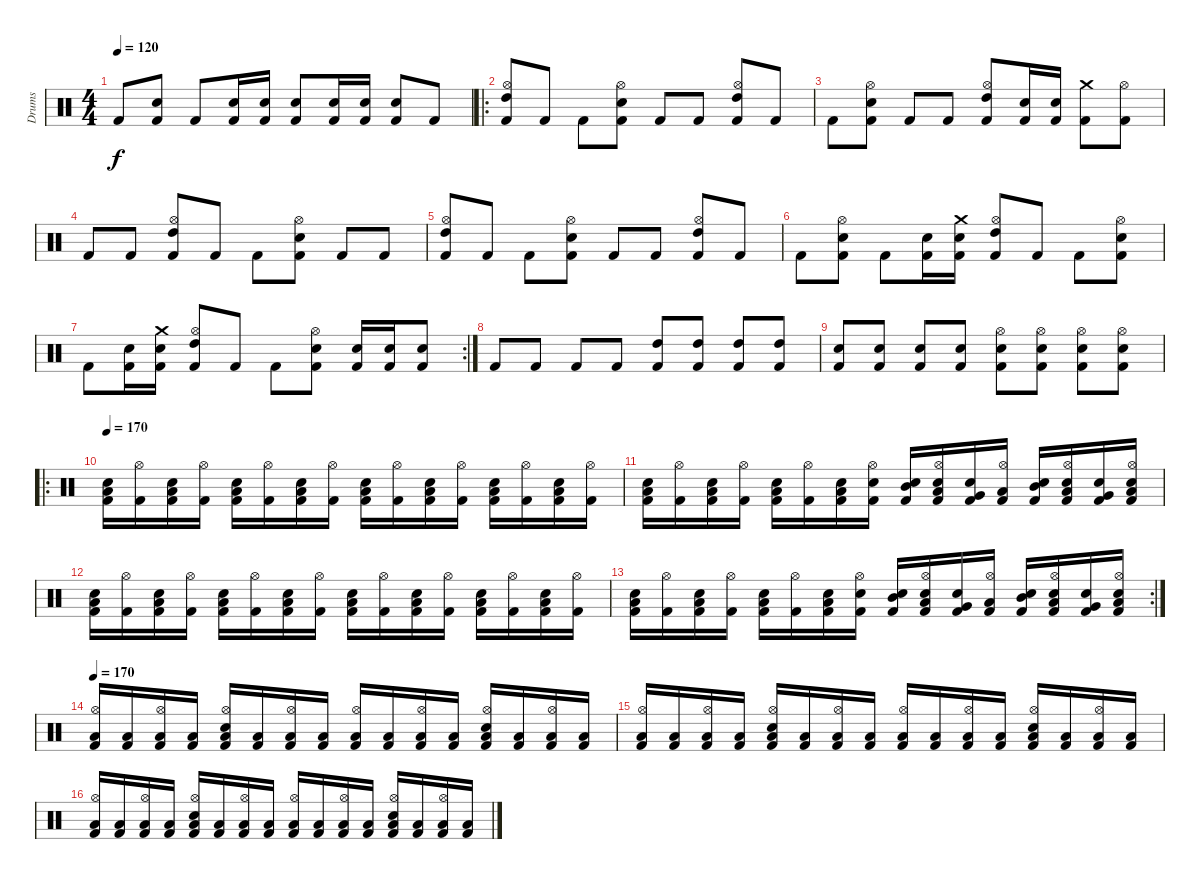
\track ("Drums" "Drums") {instrument percussion}
\staff {score}
\articulation defaults
\ts (4 4)
\tempo 120
\clef neutral
\ks c "Kick (hit) 2".8{dy f}
("Snare (hit) 2" "Kick (hit) 2").8 "Kick (hit) 2".8 ("Snare (hit) 2" "Kick (hit) 2").16 ("Snare (hit) 2" "Kick (hit) 2").16 ("Snare (hit) 2" "Kick (hit) 2").8 ("Snare (hit) 2" "Kick (hit) 2").16 ("Snare (hit) 2" "Kick (hit) 2").16 ("Snare (hit) 2" "Kick (hit) 2").8 "Kick (hit) 2".8 |
\ro
("Hi-Hat (open)" "High Tom (hit)" "Kick (hit) 2").8 "Kick (hit) 2".8 "Kick (hit) 2".8 ("Hi-Hat (open)" "Snare (hit) 2" "Kick (hit) 2").8 "Kick (hit) 2".8 "Kick (hit) 2".8 ("Hi-Hat (open)" "High Tom (hit)" "Kick (hit) 2").8 "Kick (hit) 2".8 |
"Kick (hit) 2".8 ("Hi-Hat (open)" "Snare (hit) 2" "Kick (hit) 2").8 "Kick (hit) 2".8 "Kick (hit) 2".8 ("Hi-Hat (open)" "High Tom (hit)" "Kick (hit) 2").8 ("Snare (hit) 2" "Kick (hit) 2").16 ("Snare (hit) 2" "Kick (hit) 2").16 ("Crash medium (hit)" "Kick (hit) 2").8 ("Hi-Hat (open)" "Kick (hit) 2").8 |
"Kick (hit) 2".8 "Kick (hit) 2".8 ("Hi-Hat (open)" "High Tom (hit)" "Kick (hit) 2").8 "Kick (hit) 2".8 "Kick (hit) 2".8 ("Hi-Hat (open)" "Snare (hit) 2" "Kick (hit) 2").8 "Kick (hit) 2".8 "Kick (hit) 2".8 |
("Hi-Hat (open)" "High Tom (hit)" "Kick (hit) 2").8 "Kick (hit) 2".8 "Kick (hit) 2".8 ("Hi-Hat (open)" "Snare (hit) 2" "Kick (hit) 2").8 "Kick (hit) 2".8 "Kick (hit) 2".8 ("Hi-Hat (open)" "High Tom (hit)" "Kick (hit) 2").8 "Kick (hit) 2".8 |
"Kick (hit) 2".8 ("Hi-Hat (open)" "Snare (hit) 2" "Kick (hit) 2").8 "Kick (hit) 2".8 ("Snare (hit) 2" "Kick (hit) 2").16 ("Crash medium (hit)" "Snare (hit) 2" "Kick (hit) 2").16 ("Hi-Hat (open)" "High Tom (hit)" "Kick (hit) 2").8 "Kick (hit) 2".8 "Kick (hit) 2".8 ("Hi-Hat (open)" "Snare (hit) 2" "Kick (hit) 2").8 |
\rc 2 "Kick (hit) 2".8
("Snare (hit) 2" "Kick (hit) 2").16 ("Crash medium (hit)" "Snare (hit) 2" "Kick (hit) 2").16 ("Hi-Hat (open)" "High Tom (hit)" "Kick (hit) 2").8 "Kick (hit) 2".8 "Kick (hit) 2".8 ("Hi-Hat (open)" "Snare (hit) 2" "Kick (hit) 2").8 ("Snare (hit) 2" "Kick (hit) 2").16 ("Snare (hit) 2" "Kick (hit) 2").16 ("Snare (hit) 2" "Kick (hit) 2").8 |
"Kick (hit) 2".8 "Kick (hit) 2".8 "Kick (hit) 2".8 "Kick (hit) 2".8 ("High Tom (hit)" "Kick (hit) 2").8 ("High Tom (hit)" "Kick (hit) 2").8 ("High Tom (hit)" "Kick (hit) 2").8 ("High Tom (hit)" "Kick (hit) 2").8 |
("Snare (hit) 2" "Kick (hit) 2").8 ("Snare (hit) 2" "Kick (hit) 2").8 ("Snare (hit) 2" "Kick (hit) 2").8 ("Snare (hit) 2" "Kick (hit) 2").8 ("Hi-Hat (open)" "Snare (hit) 2" "Kick (hit) 2").8 ("Hi-Hat (open)" "Snare (hit) 2" "Kick (hit) 2").8 ("Hi-Hat (open)" "Snare (hit) 2" "Kick (hit) 2").8 ("Hi-Hat (open)" "Snare (hit) 2" "Kick (hit) 2").8 |
\ro
\tempo 170
("Low Tom (hit)" "Snare (hit) 2" "Kick (hit) 2").16 ("Hi-Hat (open)" "Kick (hit) 2").16 ("Low Tom (hit)" "Snare (hit) 2" "Kick (hit) 2").16 ("Hi-Hat (open)" "Kick (hit) 2").16 ("Low Tom (hit)" "Snare (hit) 2" "Kick (hit) 2").16 ("Hi-Hat (open)" "Kick (hit) 2").16 ("Low Tom (hit)" "Snare (hit) 2" "Kick (hit) 2").16 ("Hi-Hat (open)" "Kick (hit) 2").16 ("Low Tom (hit)" "Snare (hit) 2" "Kick (hit) 2").16 ("Hi-Hat (open)" "Kick (hit) 2").16 ("Low Tom (hit)" "Snare (hit) 2" "Kick (hit) 2").16 ("Hi-Hat (open)" "Kick (hit) 2").16 ("Low Tom (hit)" "Snare (hit) 2" "Kick (hit) 2").16 ("Hi-Hat (open)" "Kick (hit) 2").16 ("Low Tom (hit)" "Snare (hit) 2" "Kick (hit) 2").16 ("Hi-Hat (open)" "Kick (hit) 2").16 |
("Low Tom (hit)" "Snare (hit) 2" "Kick (hit) 2").16 ("Hi-Hat (open)" "Kick (hit) 2").16 ("Low Tom (hit)" "Snare (hit) 2" "Kick (hit) 2").16 ("Hi-Hat (open)" "Kick (hit) 2").16 ("Low Tom (hit)" "Snare (hit) 2" "Kick (hit) 2").16 ("Hi-Hat (open)" "Kick (hit) 2").16 ("Low Tom (hit)" "Snare (hit) 2" "Kick (hit) 2").16 ("Hi-Hat (open)" "Snare (hit) 2" "Kick (hit) 2").16 ("Mid Tom (hit)" "Snare (hit) 2" "Kick (hit) 2").16 ("Low Tom (hit)" "Hi-Hat (open)" "Snare (hit) 2" "Kick (hit) 2").16 ("Very Low Tom (hit)" "Snare (hit) 2" "Kick (hit) 2").16 ("Low Tom (hit)" "Hi-Hat (open)" "Kick (hit) 2").16 ("Mid Tom (hit)" "Snare (hit) 2" "Kick (hit) 2").16 ("Low Tom (hit)" "Hi-Hat (open)" "Snare (hit) 2" "Kick (hit) 2").16 ("Very Low Tom (hit)" "Snare (hit) 2" "Kick (hit) 2").16 ("Low Tom (hit)" "Hi-Hat (open)" "Snare (hit) 2" "Kick (hit) 2").16 |
("Low Tom (hit)" "Snare (hit) 2" "Kick (hit) 2").16 ("Hi-Hat (open)" "Kick (hit) 2").16 ("Low Tom (hit)" "Snare (hit) 2" "Kick (hit) 2").16 ("Hi-Hat (open)" "Kick (hit) 2").16 ("Low Tom (hit)" "Snare (hit) 2" "Kick (hit) 2").16 ("Hi-Hat (open)" "Kick (hit) 2").16 ("Low Tom (hit)" "Snare (hit) 2" "Kick (hit) 2").16 ("Hi-Hat (open)" "Kick (hit) 2").16 ("Low Tom (hit)" "Snare (hit) 2" "Kick (hit) 2").16 ("Hi-Hat (open)" "Kick (hit) 2").16 ("Low Tom (hit)" "Snare (hit) 2" "Kick (hit) 2").16 ("Hi-Hat (open)" "Kick (hit) 2").16 ("Low Tom (hit)" "Snare (hit) 2" "Kick (hit) 2").16 ("Hi-Hat (open)" "Kick (hit) 2").16 ("Low Tom (hit)" "Snare (hit) 2" "Kick (hit) 2").16 ("Hi-Hat (open)" "Kick (hit) 2").16 |
\rc 2
("Low Tom (hit)" "Snare (hit) 2" "Kick (hit) 2").16 ("Hi-Hat (open)" "Kick (hit) 2").16 ("Low Tom (hit)" "Snare (hit) 2" "Kick (hit) 2").16 ("Hi-Hat (open)" "Kick (hit) 2").16 ("Low Tom (hit)" "Snare (hit) 2" "Kick (hit) 2").16 ("Hi-Hat (open)" "Kick (hit) 2").16 ("Low Tom (hit)" "Snare (hit) 2" "Kick (hit) 2").16 ("Hi-Hat (open)" "Snare (hit) 2" "Kick (hit) 2").16 ("Mid Tom (hit)" "Snare (hit) 2" "Kick (hit) 2").16 ("Low Tom (hit)" "Hi-Hat (open)" "Snare (hit) 2" "Kick (hit) 2").16 ("Very Low Tom (hit)" "Snare (hit) 2" "Kick (hit) 2").16 ("Low Tom (hit)" "Hi-Hat (open)" "Kick (hit) 2").16 ("Mid Tom (hit)" "Snare (hit) 2" "Kick (hit) 2").16 ("Low Tom (hit)" "Hi-Hat (open)" "Snare (hit) 2" "Kick (hit) 2").16 ("Very Low Tom (hit)" "Snare (hit) 2" "Kick (hit) 2").16 ("Low Tom (hit)" "Hi-Hat (open)" "Snare (hit) 2" "Kick (hit) 2").16 |
\tempo 170
("Low Tom (hit)" "Hi-Hat (open)" "Kick (hit) 2").16 ("Low Tom (hit)" "Kick (hit) 2").16 ("Low Tom (hit)" "Hi-Hat (open)" "Kick (hit) 2").16 ("Low Tom (hit)" "Kick (hit) 2").16 ("Low Tom (hit)" "Hi-Hat (open)" "Snare (hit) 2" "Kick (hit) 2").16 ("Low Tom (hit)" "Kick (hit) 2").16 ("Low Tom (hit)" "Hi-Hat (open)" "Kick (hit) 2").16 ("Low Tom (hit)" "Kick (hit) 2").16 ("Low Tom (hit)" "Hi-Hat (open)" "Kick (hit) 2").16 ("Low Tom (hit)" "Kick (hit) 2").16 ("Low Tom (hit)" "Hi-Hat (open)" "Kick (hit) 2").16 ("Low Tom (hit)" "Kick (hit) 2").16 ("Low Tom (hit)" "Hi-Hat (open)" "Snare (hit) 2" "Kick (hit) 2").16 ("Low Tom (hit)" "Kick (hit) 2").16 ("Low Tom (hit)" "Hi-Hat (open)" "Kick (hit) 2").16 ("Low Tom (hit)" "Kick (hit) 2").16 |
("Low Tom (hit)" "Hi-Hat (open)" "Kick (hit) 2").16 ("Low Tom (hit)" "Kick (hit) 2").16 ("Low Tom (hit)" "Hi-Hat (open)" "Kick (hit) 2").16 ("Low Tom (hit)" "Kick (hit) 2").16 ("Low Tom (hit)" "Hi-Hat (open)" "Snare (hit) 2" "Kick (hit) 2").16 ("Low Tom (hit)" "Kick (hit) 2").16 ("Low Tom (hit)" "Hi-Hat (open)" "Kick (hit) 2").16 ("Low Tom (hit)" "Kick (hit) 2").16 ("Low Tom (hit)" "Hi-Hat (open)" "Kick (hit) 2").16 ("Low Tom (hit)" "Kick (hit) 2").16 ("Low Tom (hit)" "Hi-Hat (open)" "Kick (hit) 2").16 ("Low Tom (hit)" "Kick (hit) 2").16 ("Low Tom (hit)" "Hi-Hat (open)" "Snare (hit) 2" "Kick (hit) 2").16 ("Low Tom (hit)" "Kick (hit) 2").16 ("Low Tom (hit)" "Hi-Hat (open)" "Kick (hit) 2").16 ("Low Tom (hit)" "Kick (hit) 2").16 |
("Low Tom (hit)" "Hi-Hat (open)" "Kick (hit) 2").16 ("Low Tom (hit)" "Kick (hit) 2").16 ("Low Tom (hit)" "Hi-Hat (open)" "Kick (hit) 2").16 ("Low Tom (hit)" "Kick (hit) 2").16 ("Low Tom (hit)" "Hi-Hat (open)" "Snare (hit) 2" "Kick (hit) 2").16 ("Low Tom (hit)" "Kick (hit) 2").16 ("Low Tom (hit)" "Hi-Hat (open)" "Kick (hit) 2").16 ("Low Tom (hit)" "Kick (hit) 2").16 ("Low Tom (hit)" "Hi-Hat (open)" "Kick (hit) 2").16 ("Low Tom (hit)" "Kick (hit) 2").16 ("Low Tom (hit)" "Hi-Hat (open)" "Kick (hit) 2").16 ("Low Tom (hit)" "Kick (hit) 2").16 ("Low Tom (hit)" "Hi-Hat (open)" "Snare (hit) 2" "Kick (hit) 2").16 ("Low Tom (hit)" "Kick (hit) 2").16 ("Low Tom (hit)" "Hi-Hat (open)" "Kick (hit) 2").16 ("Low Tom (hit)" "Kick (hit) 2").16
